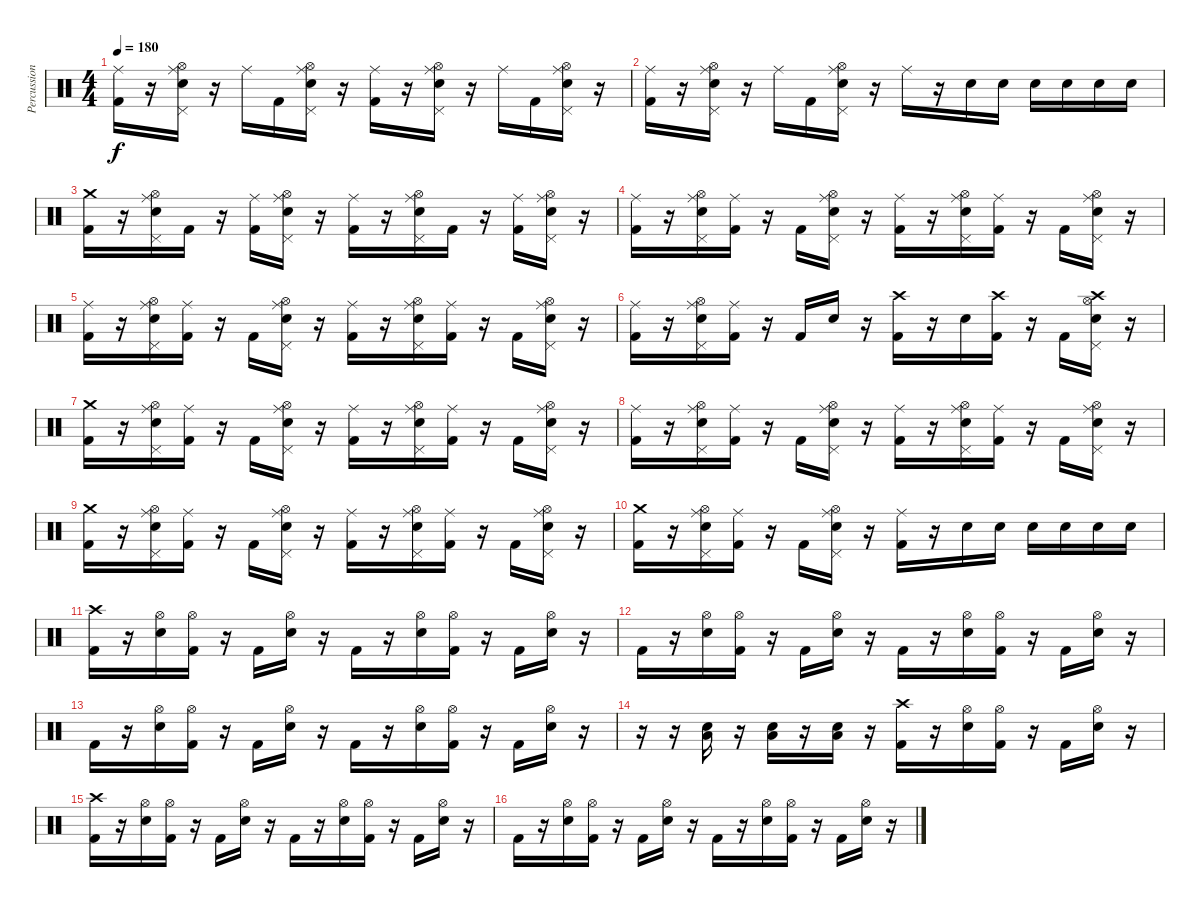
\track ("Percussion" "Percussion") {instrument percussion}
\staff {score}
\articulation defaults
\ts (4 4)
\tempo 180
\clef neutral
\ks c
("Ride (middle)" "Kick (hit) 2").16{dy f} r.16 ("Ride (middle)" "Hi-Hat (open)" "Pedal Hi-Hat (hit)" "Electric Snare (hit)").16 r.16 "Ride (middle)".16 "Kick (hit) 2".16 ("Ride (middle)" "Hi-Hat (open)" "Pedal Hi-Hat (hit)" "Electric Snare (hit)").16 r.16 ("Ride (middle)" "Kick (hit) 2").16 r.16 ("Ride (middle)" "Hi-Hat (open)" "Pedal Hi-Hat (hit)" "Electric Snare (hit)").16 r.16 "Ride (middle)".16 "Kick (hit) 2".16 ("Ride (middle)" "Hi-Hat (open)" "Pedal Hi-Hat (hit)" "Electric Snare (hit)").16 r.16 |
("Ride (middle)" "Kick (hit) 2").16 r.16 ("Ride (middle)" "Hi-Hat (open)" "Pedal Hi-Hat (hit)" "Electric Snare (hit)").16 r.16 "Ride (middle)".16 "Kick (hit) 2".16 ("Ride (middle)" "Hi-Hat (open)" "Pedal Hi-Hat (hit)" "Electric Snare (hit)").16 r.16 "Ride (middle)".16 r.16 "Electric Snare (hit)".16 "Electric Snare (hit)".16 "Electric Snare (hit)".16 "Electric Snare (hit)".16 "Electric Snare (hit)".16 "Electric Snare (hit)".16 |
("Crash medium (hit)" "Kick (hit) 2").16 r.16 ("Ride (middle)" "Hi-Hat (open)" "Pedal Hi-Hat (hit)" "Electric Snare (hit)").16 "Kick (hit) 2".16 r.16 ("Ride (middle)" "Kick (hit) 2").16 ("Ride (middle)" "Hi-Hat (open)" "Pedal Hi-Hat (hit)" "Electric Snare (hit)").16 r.16 ("Ride (middle)" "Kick (hit) 2").16 r.16 ("Ride (middle)" "Hi-Hat (open)" "Pedal Hi-Hat (hit)" "Electric Snare (hit)").16 "Kick (hit) 2".16 r.16 ("Ride (middle)" "Kick (hit) 2").16 ("Ride (middle)" "Hi-Hat (open)" "Pedal Hi-Hat (hit)" "Electric Snare (hit)").16 r.16 |
("Ride (middle)" "Kick (hit) 2").16 r.16 ("Ride (middle)" "Hi-Hat (open)" "Pedal Hi-Hat (hit)" "Electric Snare (hit)").16 ("Ride (middle)" "Kick (hit) 2").16 r.16 "Kick (hit) 2".16 ("Ride (middle)" "Hi-Hat (open)" "Pedal Hi-Hat (hit)" "Electric Snare (hit)").16 r.16 ("Ride (middle)" "Kick (hit) 2").16 r.16 ("Ride (middle)" "Hi-Hat (open)" "Pedal Hi-Hat (hit)" "Electric Snare (hit)").16 ("Ride (middle)" "Kick (hit) 2").16 r.16 "Kick (hit) 2".16 ("Ride (middle)" "Hi-Hat (open)" "Pedal Hi-Hat (hit)" "Electric Snare (hit)").16 r.16 |
("Ride (middle)" "Kick (hit) 2").16 r.16 ("Ride (middle)" "Hi-Hat (open)" "Pedal Hi-Hat (hit)" "Electric Snare (hit)").16 ("Ride (middle)" "Kick (hit) 2").16 r.16 "Kick (hit) 2".16 ("Ride (middle)" "Hi-Hat (open)" "Pedal Hi-Hat (hit)" "Electric Snare (hit)").16 r.16 ("Ride (middle)" "Kick (hit) 2").16 r.16 ("Ride (middle)" "Hi-Hat (open)" "Pedal Hi-Hat (hit)" "Electric Snare (hit)").16 ("Ride (middle)" "Kick (hit) 2").16 r.16 "Kick (hit) 2".16 ("Ride (middle)" "Hi-Hat (open)" "Pedal Hi-Hat (hit)" "Electric Snare (hit)").16 r.16 |
("Ride (middle)" "Kick (hit) 2").16 r.16 ("Ride (middle)" "Hi-Hat (open)" "Pedal Hi-Hat (hit)" "Electric Snare (hit)").16 ("Ride (middle)" "Kick (hit) 2").16 r.16 "Kick (hit) 2".16 "Electric Snare (hit)".16 r.16 ("Crash high (hit)" "Kick (hit) 2").16 r.16 "Electric Snare (hit)".16 ("Crash high (hit)" "Kick (hit) 2").16 r.16 "Kick (hit) 2".16 ("Crash high (hit)" "Hi-Hat (open)" "Pedal Hi-Hat (hit)" "Electric Snare (hit)").16 r.16 |
("Crash medium (hit)" "Kick (hit) 2").16 r.16 ("Ride (middle)" "Hi-Hat (open)" "Pedal Hi-Hat (hit)" "Electric Snare (hit)").16 ("Ride (middle)" "Kick (hit) 2").16 r.16 "Kick (hit) 2".16 ("Ride (middle)" "Hi-Hat (open)" "Pedal Hi-Hat (hit)" "Electric Snare (hit)").16 r.16 ("Ride (middle)" "Kick (hit) 2").16 r.16 ("Ride (middle)" "Hi-Hat (open)" "Pedal Hi-Hat (hit)" "Electric Snare (hit)").16 ("Ride (middle)" "Kick (hit) 2").16 r.16 "Kick (hit) 2".16 ("Ride (middle)" "Hi-Hat (open)" "Pedal Hi-Hat (hit)" "Electric Snare (hit)").16 r.16 |
("Ride (middle)" "Kick (hit) 2").16 r.16 ("Ride (middle)" "Hi-Hat (open)" "Pedal Hi-Hat (hit)" "Electric Snare (hit)").16 ("Ride (middle)" "Kick (hit) 2").16 r.16 "Kick (hit) 2".16 ("Ride (middle)" "Hi-Hat (open)" "Pedal Hi-Hat (hit)" "Electric Snare (hit)").16 r.16 ("Ride (middle)" "Kick (hit) 2").16 r.16 ("Ride (middle)" "Hi-Hat (open)" "Pedal Hi-Hat (hit)" "Electric Snare (hit)").16 ("Ride (middle)" "Kick (hit) 2").16 r.16 "Kick (hit) 2".16 ("Ride (middle)" "Hi-Hat (open)" "Pedal Hi-Hat (hit)" "Electric Snare (hit)").16 r.16 |
("Crash medium (hit)" "Kick (hit) 2").16 r.16 ("Ride (middle)" "Hi-Hat (open)" "Pedal Hi-Hat (hit)" "Electric Snare (hit)").16 ("Ride (middle)" "Kick (hit) 2").16 r.16 "Kick (hit) 2".16 ("Ride (middle)" "Hi-Hat (open)" "Pedal Hi-Hat (hit)" "Electric Snare (hit)").16 r.16 ("Ride (middle)" "Kick (hit) 2").16 r.16 ("Ride (middle)" "Hi-Hat (open)" "Pedal Hi-Hat (hit)" "Electric Snare (hit)").16 ("Ride (middle)" "Kick (hit) 2").16 r.16 "Kick (hit) 2".16 ("Ride (middle)" "Hi-Hat (open)" "Pedal Hi-Hat (hit)" "Electric Snare (hit)").16 r.16 |
("Crash medium (hit)" "Kick (hit) 2").16 r.16 ("Ride (middle)" "Hi-Hat (open)" "Pedal Hi-Hat (hit)" "Electric Snare (hit)").16 ("Ride (middle)" "Kick (hit) 2").16 r.16 "Kick (hit) 2".16 ("Ride (middle)" "Hi-Hat (open)" "Pedal Hi-Hat (hit)" "Electric Snare (hit)").16 r.16 ("Ride (middle)" "Kick (hit) 2").16 r.16 "Electric Snare (hit)".16 "Electric Snare (hit)".16 "Electric Snare (hit)".16 "Electric Snare (hit)".16 "Electric Snare (hit)".16 "Electric Snare (hit)".16 |
("Crash high (hit)" "Kick (hit) 2").16 r.16 ("Hi-Hat (open)" "Electric Snare (hit)").16 ("Hi-Hat (open)" "Kick (hit) 2").16 r.16 "Kick (hit) 2".16 ("Hi-Hat (open)" "Electric Snare (hit)").16 r.16 "Kick (hit) 2".16 r.16 ("Hi-Hat (open)" "Electric Snare (hit)").16 ("Hi-Hat (open)" "Kick (hit) 2").16 r.16 "Kick (hit) 2".16 ("Hi-Hat (open)" "Electric Snare (hit)").16 r.16 |
"Kick (hit) 2".16 r.16 ("Hi-Hat (open)" "Electric Snare (hit)").16 ("Hi-Hat (open)" "Kick (hit) 2").16 r.16 "Kick (hit) 2".16 ("Hi-Hat (open)" "Electric Snare (hit)").16 r.16 "Kick (hit) 2".16 r.16 ("Hi-Hat (open)" "Electric Snare (hit)").16 ("Hi-Hat (open)" "Kick (hit) 2").16 r.16 "Kick (hit) 2".16 ("Hi-Hat (open)" "Electric Snare (hit)").16 r.16 |
"Kick (hit) 2".16 r.16 ("Hi-Hat (open)" "Electric Snare (hit)").16 ("Hi-Hat (open)" "Kick (hit) 2").16 r.16 "Kick (hit) 2".16 ("Hi-Hat (open)" "Electric Snare (hit)").16 r.16 "Kick (hit) 2".16 r.16 ("Hi-Hat (open)" "Electric Snare (hit)").16 ("Hi-Hat (open)" "Kick (hit) 2").16 r.16 "Kick (hit) 2".16 ("Hi-Hat (open)" "Electric Snare (hit)").16 r.16 |
r.16 r.16 ("Low Tom (hit)" "Electric Snare (hit)").16 r.16 ("Low Tom (hit)" "Electric Snare (hit)").16 r.16 ("Low Tom (hit)" "Electric Snare (hit)").16 r.16 ("Crash high (hit)" "Kick (hit) 2").16 r.16 ("Hi-Hat (open)" "Electric Snare (hit)").16 ("Hi-Hat (open)" "Kick (hit) 2").16 r.16 "Kick (hit) 2".16 ("Hi-Hat (open)" "Electric Snare (hit)").16 r.16 |
("Crash high (hit)" "Kick (hit) 2").16 r.16 ("Hi-Hat (open)" "Electric Snare (hit)").16 ("Hi-Hat (open)" "Kick (hit) 2").16 r.16 "Kick (hit) 2".16 ("Hi-Hat (open)" "Electric Snare (hit)").16 r.16 "Kick (hit) 2".16 r.16 ("Hi-Hat (open)" "Electric Snare (hit)").16 ("Hi-Hat (open)" "Kick (hit) 2").16 r.16 "Kick (hit) 2".16 ("Hi-Hat (open)" "Electric Snare (hit)").16 r.16 |
"Kick (hit) 2".16 r.16 ("Hi-Hat (open)" "Electric Snare (hit)").16 ("Hi-Hat (open)" "Kick (hit) 2").16 r.16 "Kick (hit) 2".16 ("Hi-Hat (open)" "Electric Snare (hit)").16 r.16 "Kick (hit) 2".16 r.16 ("Hi-Hat (open)" "Electric Snare (hit)").16 ("Hi-Hat (open)" "Kick (hit) 2").16 r.16 "Kick (hit) 2".16 ("Hi-Hat (open)" "Electric Snare (hit)").16 r.16
